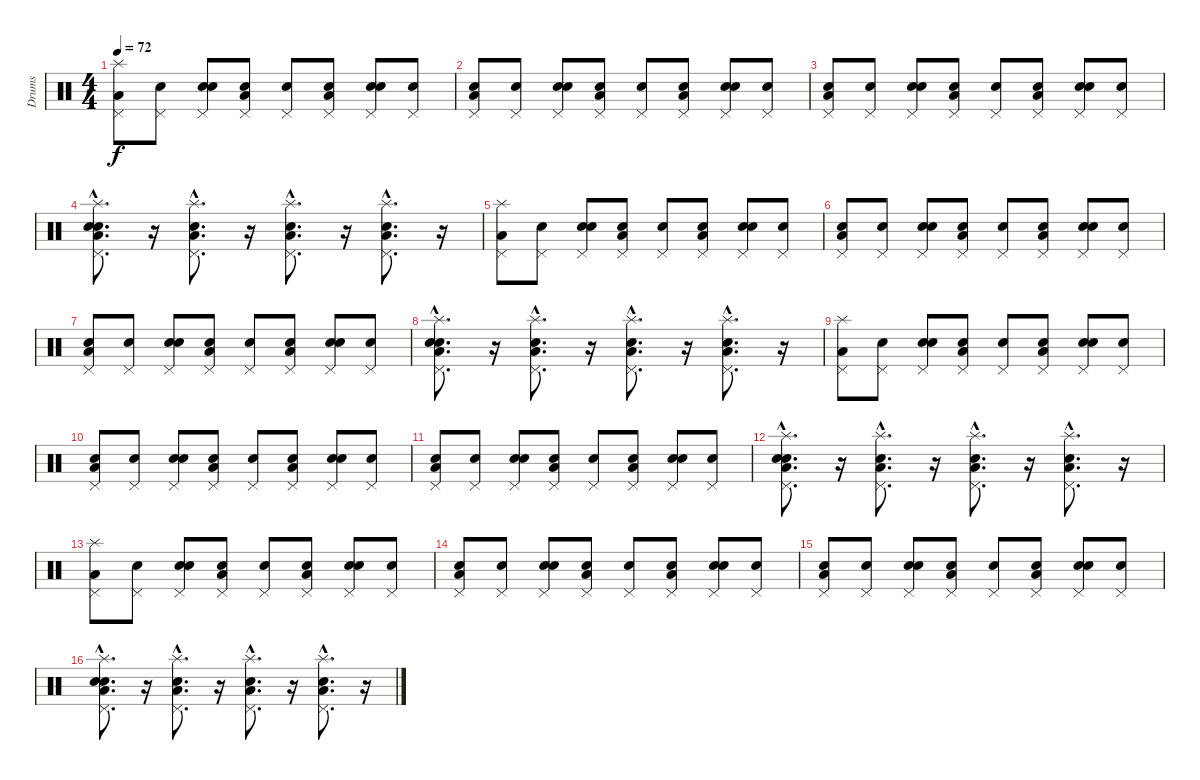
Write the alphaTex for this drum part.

\track ("Drums" "Drums") {instrument percussion}
\staff {score}
\articulation defaults
\ts (4 4)
\tempo 72
\clef neutral
\ks c
("Low Floor Tom (hit)" "Pedal Hi-Hat (hit)" "Splash (hit)").8{dy f} ("Snare (hit)" "Pedal Hi-Hat (hit)").8 ("Snare (hit)" "Electric Snare (hit)" "Pedal Hi-Hat (hit)").8 ("Snare (hit)" "Low Floor Tom (hit)" "Pedal Hi-Hat (hit)").8 ("Snare (hit)" "Pedal Hi-Hat (hit)").8 ("Snare (hit)" "Low Floor Tom (hit)" "Pedal Hi-Hat (hit)").8 ("Snare (hit)" "Electric Snare (hit)" "Pedal Hi-Hat (hit)").8 ("Snare (hit)" "Pedal Hi-Hat (hit)").8 |
("Snare (hit)" "Low Floor Tom (hit)" "Pedal Hi-Hat (hit)").8 ("Snare (hit)" "Pedal Hi-Hat (hit)").8 ("Snare (hit)" "Electric Snare (hit)" "Pedal Hi-Hat (hit)").8 ("Snare (hit)" "Low Floor Tom (hit)" "Pedal Hi-Hat (hit)").8 ("Snare (hit)" "Pedal Hi-Hat (hit)").8 ("Snare (hit)" "Low Floor Tom (hit)" "Pedal Hi-Hat (hit)").8 ("Snare (hit)" "Electric Snare (hit)" "Pedal Hi-Hat (hit)").8 ("Snare (hit)" "Pedal Hi-Hat (hit)").8 |
("Snare (hit)" "Low Floor Tom (hit)" "Pedal Hi-Hat (hit)").8 ("Snare (hit)" "Pedal Hi-Hat (hit)").8 ("Snare (hit)" "Electric Snare (hit)" "Pedal Hi-Hat (hit)").8 ("Snare (hit)" "Low Floor Tom (hit)" "Pedal Hi-Hat (hit)").8 ("Snare (hit)" "Pedal Hi-Hat (hit)").8 ("Snare (hit)" "Low Floor Tom (hit)" "Pedal Hi-Hat (hit)").8 ("Snare (hit)" "Electric Snare (hit)" "Pedal Hi-Hat (hit)").8 ("Snare (hit)" "Pedal Hi-Hat (hit)").8 |
("Snare (hit)"{hac} "Electric Snare (hit)"{hac} "Low Floor Tom (hit)"{hac} "Pedal Hi-Hat (hit)"{hac} "Splash (hit)"{hac}).8{d} r.16 ("Electric Snare (hit)"{hac} "Low Floor Tom (hit)"{hac} "Pedal Hi-Hat (hit)"{hac} "Splash (hit)"{hac}).8{d} r.16 ("Electric Snare (hit)"{hac} "Low Floor Tom (hit)"{hac} "Pedal Hi-Hat (hit)"{hac} "Splash (hit)"{hac}).8{d} r.16 ("Electric Snare (hit)"{hac} "Low Floor Tom (hit)"{hac} "Pedal Hi-Hat (hit)"{hac} "Splash (hit)"{hac}).8{d} r.16 |
("Low Floor Tom (hit)" "Pedal Hi-Hat (hit)" "Splash (hit)").8 ("Snare (hit)" "Pedal Hi-Hat (hit)").8 ("Snare (hit)" "Electric Snare (hit)" "Pedal Hi-Hat (hit)").8 ("Snare (hit)" "Low Floor Tom (hit)" "Pedal Hi-Hat (hit)").8 ("Snare (hit)" "Pedal Hi-Hat (hit)").8 ("Snare (hit)" "Low Floor Tom (hit)" "Pedal Hi-Hat (hit)").8 ("Snare (hit)" "Electric Snare (hit)" "Pedal Hi-Hat (hit)").8 ("Snare (hit)" "Pedal Hi-Hat (hit)").8 |
("Snare (hit)" "Low Floor Tom (hit)" "Pedal Hi-Hat (hit)").8 ("Snare (hit)" "Pedal Hi-Hat (hit)").8 ("Snare (hit)" "Electric Snare (hit)" "Pedal Hi-Hat (hit)").8 ("Snare (hit)" "Low Floor Tom (hit)" "Pedal Hi-Hat (hit)").8 ("Snare (hit)" "Pedal Hi-Hat (hit)").8 ("Snare (hit)" "Low Floor Tom (hit)" "Pedal Hi-Hat (hit)").8 ("Snare (hit)" "Electric Snare (hit)" "Pedal Hi-Hat (hit)").8 ("Snare (hit)" "Pedal Hi-Hat (hit)").8 |
("Snare (hit)" "Low Floor Tom (hit)" "Pedal Hi-Hat (hit)").8 ("Snare (hit)" "Pedal Hi-Hat (hit)").8 ("Snare (hit)" "Electric Snare (hit)" "Pedal Hi-Hat (hit)").8 ("Snare (hit)" "Low Floor Tom (hit)" "Pedal Hi-Hat (hit)").8 ("Snare (hit)" "Pedal Hi-Hat (hit)").8 ("Snare (hit)" "Low Floor Tom (hit)" "Pedal Hi-Hat (hit)").8 ("Snare (hit)" "Electric Snare (hit)" "Pedal Hi-Hat (hit)").8 ("Snare (hit)" "Pedal Hi-Hat (hit)").8 |
("Snare (hit)"{hac} "Electric Snare (hit)"{hac} "Low Floor Tom (hit)"{hac} "Pedal Hi-Hat (hit)"{hac} "Splash (hit)"{hac}).8{d} r.16 ("Electric Snare (hit)"{hac} "Low Floor Tom (hit)"{hac} "Pedal Hi-Hat (hit)"{hac} "Splash (hit)"{hac}).8{d} r.16 ("Electric Snare (hit)"{hac} "Low Floor Tom (hit)"{hac} "Pedal Hi-Hat (hit)"{hac} "Splash (hit)"{hac}).8{d} r.16 ("Electric Snare (hit)"{hac} "Low Floor Tom (hit)"{hac} "Pedal Hi-Hat (hit)"{hac} "Splash (hit)"{hac}).8{d} r.16 |
("Low Floor Tom (hit)" "Pedal Hi-Hat (hit)" "Splash (hit)").8 ("Snare (hit)" "Pedal Hi-Hat (hit)").8 ("Snare (hit)" "Electric Snare (hit)" "Pedal Hi-Hat (hit)").8 ("Snare (hit)" "Low Floor Tom (hit)" "Pedal Hi-Hat (hit)").8 ("Snare (hit)" "Pedal Hi-Hat (hit)").8 ("Snare (hit)" "Low Floor Tom (hit)" "Pedal Hi-Hat (hit)").8 ("Snare (hit)" "Electric Snare (hit)" "Pedal Hi-Hat (hit)").8 ("Snare (hit)" "Pedal Hi-Hat (hit)").8 |
("Snare (hit)" "Low Floor Tom (hit)" "Pedal Hi-Hat (hit)").8 ("Snare (hit)" "Pedal Hi-Hat (hit)").8 ("Snare (hit)" "Electric Snare (hit)" "Pedal Hi-Hat (hit)").8 ("Snare (hit)" "Low Floor Tom (hit)" "Pedal Hi-Hat (hit)").8 ("Snare (hit)" "Pedal Hi-Hat (hit)").8 ("Snare (hit)" "Low Floor Tom (hit)" "Pedal Hi-Hat (hit)").8 ("Snare (hit)" "Electric Snare (hit)" "Pedal Hi-Hat (hit)").8 ("Snare (hit)" "Pedal Hi-Hat (hit)").8 |
("Snare (hit)" "Low Floor Tom (hit)" "Pedal Hi-Hat (hit)").8 ("Snare (hit)" "Pedal Hi-Hat (hit)").8 ("Snare (hit)" "Electric Snare (hit)" "Pedal Hi-Hat (hit)").8 ("Snare (hit)" "Low Floor Tom (hit)" "Pedal Hi-Hat (hit)").8 ("Snare (hit)" "Pedal Hi-Hat (hit)").8 ("Snare (hit)" "Low Floor Tom (hit)" "Pedal Hi-Hat (hit)").8 ("Snare (hit)" "Electric Snare (hit)" "Pedal Hi-Hat (hit)").8 ("Snare (hit)" "Pedal Hi-Hat (hit)").8 |
("Snare (hit)"{hac} "Electric Snare (hit)"{hac} "Low Floor Tom (hit)"{hac} "Pedal Hi-Hat (hit)"{hac} "Splash (hit)"{hac}).8{d} r.16 ("Electric Snare (hit)"{hac} "Low Floor Tom (hit)"{hac} "Pedal Hi-Hat (hit)"{hac} "Splash (hit)"{hac}).8{d} r.16 ("Electric Snare (hit)"{hac} "Low Floor Tom (hit)"{hac} "Pedal Hi-Hat (hit)"{hac} "Splash (hit)"{hac}).8{d} r.16 ("Electric Snare (hit)"{hac} "Low Floor Tom (hit)"{hac} "Pedal Hi-Hat (hit)"{hac} "Splash (hit)"{hac}).8{d} r.16 |
("Low Floor Tom (hit)" "Pedal Hi-Hat (hit)" "Splash (hit)").8 ("Snare (hit)" "Pedal Hi-Hat (hit)").8 ("Snare (hit)" "Electric Snare (hit)" "Pedal Hi-Hat (hit)").8 ("Snare (hit)" "Low Floor Tom (hit)" "Pedal Hi-Hat (hit)").8 ("Snare (hit)" "Pedal Hi-Hat (hit)").8 ("Snare (hit)" "Low Floor Tom (hit)" "Pedal Hi-Hat (hit)").8 ("Snare (hit)" "Electric Snare (hit)" "Pedal Hi-Hat (hit)").8 ("Snare (hit)" "Pedal Hi-Hat (hit)").8 |
("Snare (hit)" "Low Floor Tom (hit)" "Pedal Hi-Hat (hit)").8 ("Snare (hit)" "Pedal Hi-Hat (hit)").8 ("Snare (hit)" "Electric Snare (hit)" "Pedal Hi-Hat (hit)").8 ("Snare (hit)" "Low Floor Tom (hit)" "Pedal Hi-Hat (hit)").8 ("Snare (hit)" "Pedal Hi-Hat (hit)").8 ("Snare (hit)" "Low Floor Tom (hit)" "Pedal Hi-Hat (hit)").8 ("Snare (hit)" "Electric Snare (hit)" "Pedal Hi-Hat (hit)").8 ("Snare (hit)" "Pedal Hi-Hat (hit)").8 |
("Snare (hit)" "Low Floor Tom (hit)" "Pedal Hi-Hat (hit)").8 ("Snare (hit)" "Pedal Hi-Hat (hit)").8 ("Snare (hit)" "Electric Snare (hit)" "Pedal Hi-Hat (hit)").8 ("Snare (hit)" "Low Floor Tom (hit)" "Pedal Hi-Hat (hit)").8 ("Snare (hit)" "Pedal Hi-Hat (hit)").8 ("Snare (hit)" "Low Floor Tom (hit)" "Pedal Hi-Hat (hit)").8 ("Snare (hit)" "Electric Snare (hit)" "Pedal Hi-Hat (hit)").8 ("Snare (hit)" "Pedal Hi-Hat (hit)").8 |
("Snare (hit)"{hac} "Electric Snare (hit)"{hac} "Low Floor Tom (hit)"{hac} "Pedal Hi-Hat (hit)"{hac} "Splash (hit)"{hac}).8{d} r.16 ("Electric Snare (hit)"{hac} "Low Floor Tom (hit)"{hac} "Pedal Hi-Hat (hit)"{hac} "Splash (hit)"{hac}).8{d} r.16 ("Electric Snare (hit)"{hac} "Low Floor Tom (hit)"{hac} "Pedal Hi-Hat (hit)"{hac} "Splash (hit)"{hac}).8{d} r.16 ("Electric Snare (hit)"{hac} "Low Floor Tom (hit)"{hac} "Pedal Hi-Hat (hit)"{hac} "Splash (hit)"{hac}).8{d} r.16
